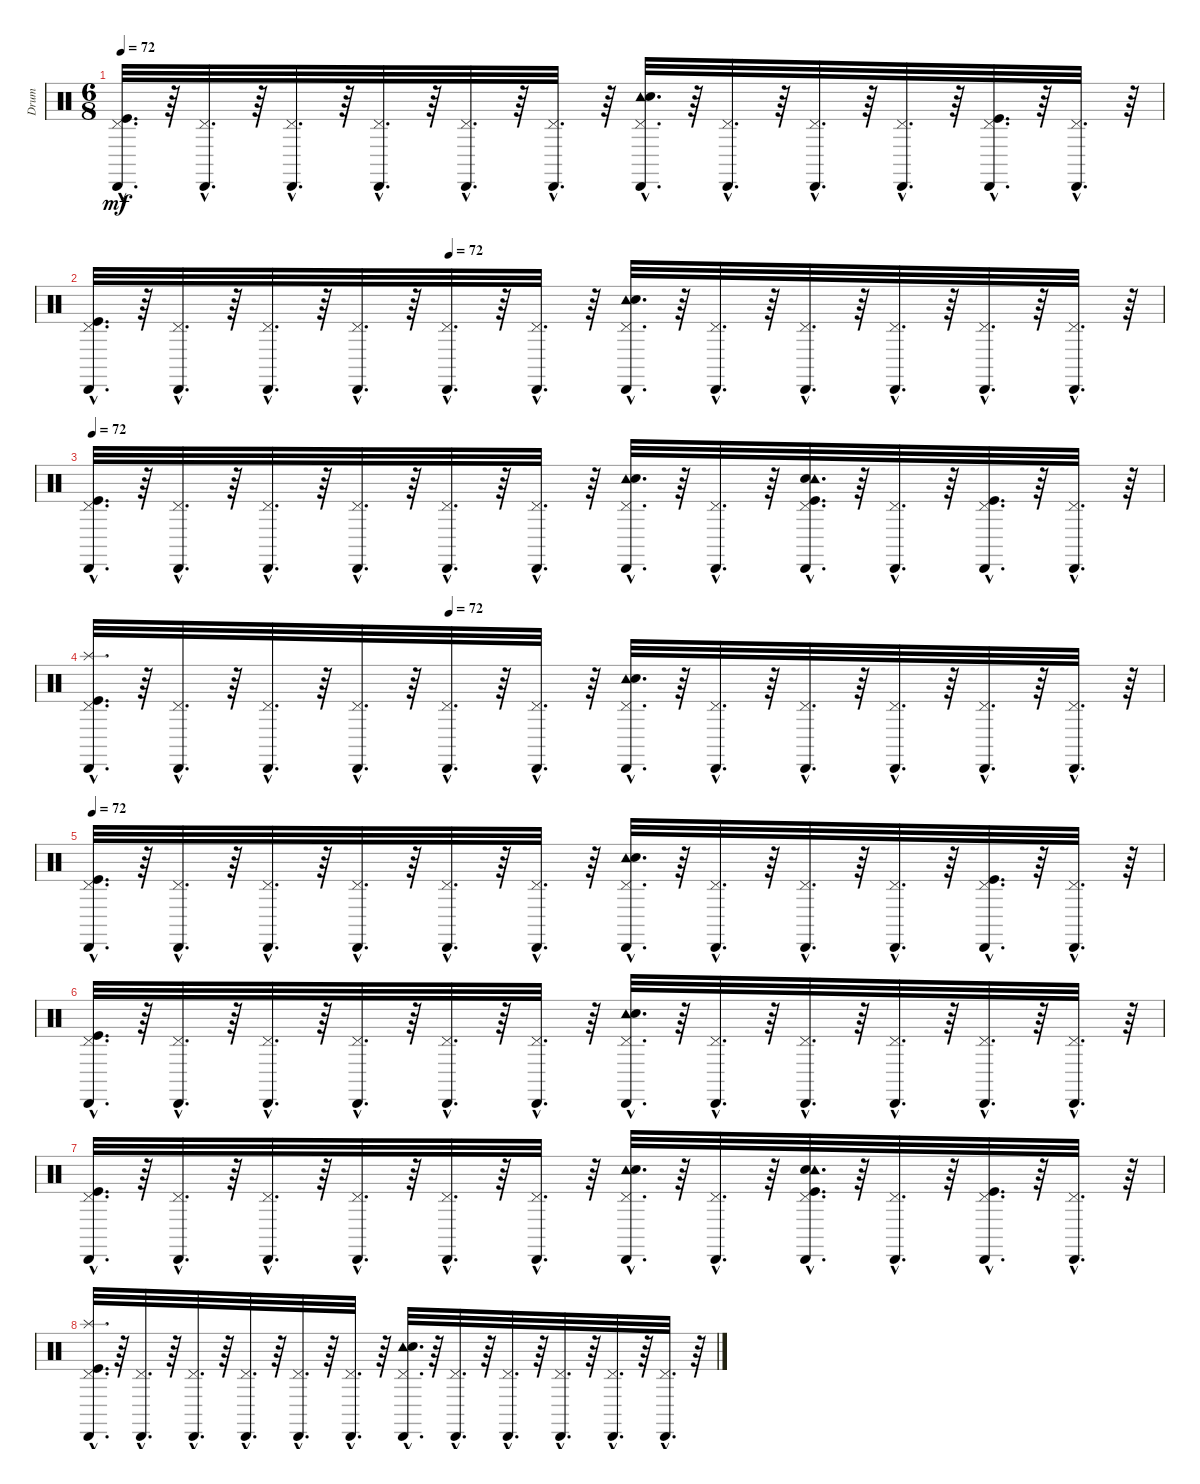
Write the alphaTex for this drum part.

\track ("Drum" "Drum") {instrument percussion}
\staff {score}
\articulation defaults
\ts (6 8)
\tempo 72
\clef neutral
\ks c
("Cabasa (hit)"{hac} "Pedal Hi-Hat (hit)"{hac} "Kick (hit)"{hac}).32{d dy mf} r.64 ("Cabasa (hit)"{hac} "Pedal Hi-Hat (hit)"{hac}).32{d} r.64 ("Cabasa (hit)"{hac} "Pedal Hi-Hat (hit)"{hac}).32{d} r.64 ("Cabasa (hit)"{hac} "Pedal Hi-Hat (hit)"{hac}).32{d} r.64 ("Cabasa (hit)"{hac} "Pedal Hi-Hat (hit)"{hac}).32{d} r.64 ("Cabasa (hit)"{hac} "Pedal Hi-Hat (hit)"{hac}).32{d} r.64 ("Cabasa (hit)"{hac} "Pedal Hi-Hat (hit)"{hac} "Tambourine (hit)"{hac} "Electric Snare (hit)"{hac}).32{d} r.64 ("Cabasa (hit)"{hac} "Pedal Hi-Hat (hit)"{hac}).32{d} r.64 ("Cabasa (hit)"{hac} "Pedal Hi-Hat (hit)"{hac}).32{d} r.64 ("Cabasa (hit)"{hac} "Pedal Hi-Hat (hit)"{hac}).32{d} r.64 ("Kick (hit)"{hac} "Cabasa (hit)"{hac} "Pedal Hi-Hat (hit)"{hac}).32{d} r.64 ("Cabasa (hit)"{hac} "Pedal Hi-Hat (hit)"{hac}).32{d} r.64 |
\tempo (72 0.3333333333333333)
("Cabasa (hit)"{hac} "Pedal Hi-Hat (hit)"{hac} "Kick (hit)"{hac}).32{d} r.64 ("Cabasa (hit)"{hac} "Pedal Hi-Hat (hit)"{hac}).32{d} r.64 ("Cabasa (hit)"{hac} "Pedal Hi-Hat (hit)"{hac}).32{d} r.64 ("Cabasa (hit)"{hac} "Pedal Hi-Hat (hit)"{hac}).32{d} r.64 ("Cabasa (hit)"{hac} "Pedal Hi-Hat (hit)"{hac}).32{d} r.64 ("Cabasa (hit)"{hac} "Pedal Hi-Hat (hit)"{hac}).32{d} r.64 ("Cabasa (hit)"{hac} "Pedal Hi-Hat (hit)"{hac} "Tambourine (hit)"{hac} "Electric Snare (hit)"{hac}).32{d} r.64 ("Cabasa (hit)"{hac} "Pedal Hi-Hat (hit)"{hac}).32{d} r.64 ("Cabasa (hit)"{hac} "Pedal Hi-Hat (hit)"{hac}).32{d} r.64 ("Cabasa (hit)"{hac} "Pedal Hi-Hat (hit)"{hac}).32{d} r.64 ("Cabasa (hit)"{hac} "Pedal Hi-Hat (hit)"{hac}).32{d} r.64 ("Cabasa (hit)"{hac} "Pedal Hi-Hat (hit)"{hac}).32{d} r.64 |
\tempo 72
("Cabasa (hit)"{hac} "Pedal Hi-Hat (hit)"{hac} "Kick (hit)"{hac}).32{d} r.64 ("Cabasa (hit)"{hac} "Pedal Hi-Hat (hit)"{hac}).32{d} r.64 ("Cabasa (hit)"{hac} "Pedal Hi-Hat (hit)"{hac}).32{d} r.64 ("Cabasa (hit)"{hac} "Pedal Hi-Hat (hit)"{hac}).32{d} r.64 ("Cabasa (hit)"{hac} "Pedal Hi-Hat (hit)"{hac}).32{d} r.64 ("Cabasa (hit)"{hac} "Pedal Hi-Hat (hit)"{hac}).32{d} r.64 ("Cabasa (hit)"{hac} "Pedal Hi-Hat (hit)"{hac} "Tambourine (hit)"{hac} "Electric Snare (hit)"{hac}).32{d} r.64 ("Cabasa (hit)"{hac} "Pedal Hi-Hat (hit)"{hac}).32{d} r.64 ("Kick (hit)"{hac} "Electric Snare (hit)"{hac} "Tambourine (hit)"{hac} "Cabasa (hit)"{hac} "Pedal Hi-Hat (hit)"{hac}).32{d} r.64 ("Cabasa (hit)"{hac} "Pedal Hi-Hat (hit)"{hac}).32{d} r.64 ("Kick (hit)"{hac} "Cabasa (hit)"{hac} "Pedal Hi-Hat (hit)"{hac}).32{d} r.64 ("Cabasa (hit)"{hac} "Pedal Hi-Hat (hit)"{hac}).32{d} r.64 |
\tempo (72 0.3333333333333333)
("Splash (hit)"{hac} "Cabasa (hit)"{hac} "Pedal Hi-Hat (hit)"{hac} "Kick (hit)"{hac}).32{d} r.64 ("Cabasa (hit)"{hac} "Pedal Hi-Hat (hit)"{hac}).32{d} r.64 ("Cabasa (hit)"{hac} "Pedal Hi-Hat (hit)"{hac}).32{d} r.64 ("Cabasa (hit)"{hac} "Pedal Hi-Hat (hit)"{hac}).32{d} r.64 ("Cabasa (hit)"{hac} "Pedal Hi-Hat (hit)"{hac}).32{d} r.64 ("Cabasa (hit)"{hac} "Pedal Hi-Hat (hit)"{hac}).32{d} r.64 ("Cabasa (hit)"{hac} "Pedal Hi-Hat (hit)"{hac} "Tambourine (hit)"{hac} "Electric Snare (hit)"{hac}).32{d} r.64 ("Cabasa (hit)"{hac} "Pedal Hi-Hat (hit)"{hac}).32{d} r.64 ("Cabasa (hit)"{hac} "Pedal Hi-Hat (hit)"{hac}).32{d} r.64 ("Cabasa (hit)"{hac} "Pedal Hi-Hat (hit)"{hac}).32{d} r.64 ("Cabasa (hit)"{hac} "Pedal Hi-Hat (hit)"{hac}).32{d} r.64 ("Cabasa (hit)"{hac} "Pedal Hi-Hat (hit)"{hac}).32{d} r.64 |
\tempo 72
("Cabasa (hit)"{hac} "Pedal Hi-Hat (hit)"{hac} "Kick (hit)"{hac}).32{d} r.64 ("Cabasa (hit)"{hac} "Pedal Hi-Hat (hit)"{hac}).32{d} r.64 ("Cabasa (hit)"{hac} "Pedal Hi-Hat (hit)"{hac}).32{d} r.64 ("Cabasa (hit)"{hac} "Pedal Hi-Hat (hit)"{hac}).32{d} r.64 ("Cabasa (hit)"{hac} "Pedal Hi-Hat (hit)"{hac}).32{d} r.64 ("Cabasa (hit)"{hac} "Pedal Hi-Hat (hit)"{hac}).32{d} r.64 ("Cabasa (hit)"{hac} "Pedal Hi-Hat (hit)"{hac} "Tambourine (hit)"{hac} "Electric Snare (hit)"{hac}).32{d} r.64 ("Cabasa (hit)"{hac} "Pedal Hi-Hat (hit)"{hac}).32{d} r.64 ("Cabasa (hit)"{hac} "Pedal Hi-Hat (hit)"{hac}).32{d} r.64 ("Cabasa (hit)"{hac} "Pedal Hi-Hat (hit)"{hac}).32{d} r.64 ("Kick (hit)"{hac} "Cabasa (hit)"{hac} "Pedal Hi-Hat (hit)"{hac}).32{d} r.64 ("Cabasa (hit)"{hac} "Pedal Hi-Hat (hit)"{hac}).32{d} r.64 |
("Cabasa (hit)"{hac} "Pedal Hi-Hat (hit)"{hac} "Kick (hit)"{hac}).32{d} r.64 ("Cabasa (hit)"{hac} "Pedal Hi-Hat (hit)"{hac}).32{d} r.64 ("Cabasa (hit)"{hac} "Pedal Hi-Hat (hit)"{hac}).32{d} r.64 ("Cabasa (hit)"{hac} "Pedal Hi-Hat (hit)"{hac}).32{d} r.64 ("Cabasa (hit)"{hac} "Pedal Hi-Hat (hit)"{hac}).32{d} r.64 ("Cabasa (hit)"{hac} "Pedal Hi-Hat (hit)"{hac}).32{d} r.64 ("Cabasa (hit)"{hac} "Pedal Hi-Hat (hit)"{hac} "Tambourine (hit)"{hac} "Electric Snare (hit)"{hac}).32{d} r.64 ("Cabasa (hit)"{hac} "Pedal Hi-Hat (hit)"{hac}).32{d} r.64 ("Cabasa (hit)"{hac} "Pedal Hi-Hat (hit)"{hac}).32{d} r.64 ("Cabasa (hit)"{hac} "Pedal Hi-Hat (hit)"{hac}).32{d} r.64 ("Cabasa (hit)"{hac} "Pedal Hi-Hat (hit)"{hac}).32{d} r.64 ("Cabasa (hit)"{hac} "Pedal Hi-Hat (hit)"{hac}).32{d} r.64 |
("Cabasa (hit)"{hac} "Pedal Hi-Hat (hit)"{hac} "Kick (hit)"{hac}).32{d} r.64 ("Cabasa (hit)"{hac} "Pedal Hi-Hat (hit)"{hac}).32{d} r.64 ("Cabasa (hit)"{hac} "Pedal Hi-Hat (hit)"{hac}).32{d} r.64 ("Cabasa (hit)"{hac} "Pedal Hi-Hat (hit)"{hac}).32{d} r.64 ("Cabasa (hit)"{hac} "Pedal Hi-Hat (hit)"{hac}).32{d} r.64 ("Cabasa (hit)"{hac} "Pedal Hi-Hat (hit)"{hac}).32{d} r.64 ("Cabasa (hit)"{hac} "Pedal Hi-Hat (hit)"{hac} "Tambourine (hit)"{hac} "Electric Snare (hit)"{hac}).32{d} r.64 ("Cabasa (hit)"{hac} "Pedal Hi-Hat (hit)"{hac}).32{d} r.64 ("Kick (hit)"{hac} "Electric Snare (hit)"{hac} "Tambourine (hit)"{hac} "Cabasa (hit)"{hac} "Pedal Hi-Hat (hit)"{hac}).32{d} r.64 ("Cabasa (hit)"{hac} "Pedal Hi-Hat (hit)"{hac}).32{d} r.64 ("Kick (hit)"{hac} "Cabasa (hit)"{hac} "Pedal Hi-Hat (hit)"{hac}).32{d} r.64 ("Cabasa (hit)"{hac} "Pedal Hi-Hat (hit)"{hac}).32{d} r.64 |
("Splash (hit)"{hac} "Cabasa (hit)"{hac} "Pedal Hi-Hat (hit)"{hac} "Kick (hit)"{hac}).32{d} r.64 ("Cabasa (hit)"{hac} "Pedal Hi-Hat (hit)"{hac}).32{d} r.64 ("Cabasa (hit)"{hac} "Pedal Hi-Hat (hit)"{hac}).32{d} r.64 ("Cabasa (hit)"{hac} "Pedal Hi-Hat (hit)"{hac}).32{d} r.64 ("Cabasa (hit)"{hac} "Pedal Hi-Hat (hit)"{hac}).32{d} r.64 ("Cabasa (hit)"{hac} "Pedal Hi-Hat (hit)"{hac}).32{d} r.64 ("Cabasa (hit)"{hac} "Pedal Hi-Hat (hit)"{hac} "Tambourine (hit)"{hac} "Electric Snare (hit)"{hac}).32{d} r.64 ("Cabasa (hit)"{hac} "Pedal Hi-Hat (hit)"{hac}).32{d} r.64 ("Cabasa (hit)"{hac} "Pedal Hi-Hat (hit)"{hac}).32{d} r.64 ("Cabasa (hit)"{hac} "Pedal Hi-Hat (hit)"{hac}).32{d} r.64 ("Cabasa (hit)"{hac} "Pedal Hi-Hat (hit)"{hac}).32{d} r.64 ("Cabasa (hit)"{hac} "Pedal Hi-Hat (hit)"{hac}).32{d} r.64
